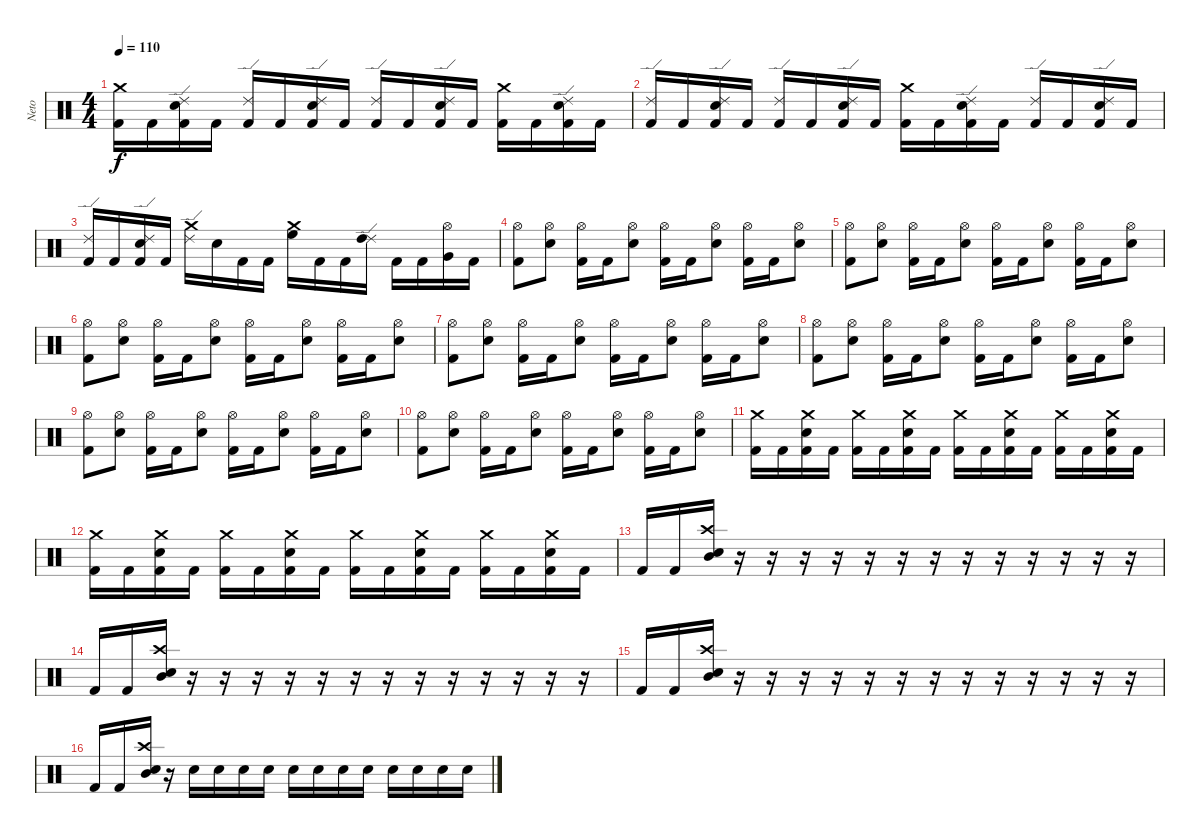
\track ("Neto" "Neto") {instrument percussion}
\staff {score}
\articulation defaults
\ts (4 4)
\tempo 110
\clef neutral
\ks c
("Crash medium (hit)" "Kick (hit) 2").16{dy f} "Kick (hit) 2".16 ("Ride (edge) 2" "Electric Snare (hit)" "Kick (hit) 2").16 "Kick (hit) 2".16 ("Ride (edge) 2" "Kick (hit) 2").16 "Kick (hit) 2".16 ("Ride (edge) 2" "Electric Snare (hit)" "Kick (hit) 2").16 "Kick (hit) 2".16 ("Ride (edge) 2" "Kick (hit) 2").16 "Kick (hit) 2".16 ("Ride (edge) 2" "Electric Snare (hit)" "Kick (hit) 2").16 "Kick (hit) 2".16 ("Crash medium (hit)" "Kick (hit) 2").16 "Kick (hit) 2".16 ("Ride (edge) 2" "Electric Snare (hit)" "Kick (hit) 2").16 "Kick (hit) 2".16 |
("Ride (edge) 2" "Kick (hit) 2").16 "Kick (hit) 2".16 ("Ride (edge) 2" "Electric Snare (hit)" "Kick (hit) 2").16 "Kick (hit) 2".16 ("Ride (edge) 2" "Kick (hit) 2").16 "Kick (hit) 2".16 ("Ride (edge) 2" "Electric Snare (hit)" "Kick (hit) 2").16 "Kick (hit) 2".16 ("Crash medium (hit)" "Kick (hit) 2").16 "Kick (hit) 2".16 ("Ride (edge) 2" "Electric Snare (hit)" "Kick (hit) 2").16 "Kick (hit) 2".16 ("Ride (edge) 2" "Kick (hit) 2").16 "Kick (hit) 2".16 ("Ride (edge) 2" "Electric Snare (hit)" "Kick (hit) 2").16 "Kick (hit) 2".16 |
("Ride (edge) 2" "Kick (hit) 2").16 "Kick (hit) 2".16 ("Ride (edge) 2" "Electric Snare (hit)" "Kick (hit) 2").16 "Kick (hit) 2".16 ("Crash medium (hit)" "Ride (edge) 2").16 "Electric Snare (hit)".16 "Kick (hit) 2".16 "Kick (hit) 2".16 ("Crash medium (hit)" "High Floor Tom (hit)").16 "Kick (hit) 2".16 "Kick (hit) 2".16 ("Ride (edge) 2" "High Tom (hit)").16 "Kick (hit) 2".16 "Kick (hit) 2".16 ("Hi-Hat (open)" "Very Low Tom (hit)").16 "Kick (hit) 2".16 |
("Hi-Hat (open)" "Kick (hit) 2").8 ("Hi-Hat (open)" "Electric Snare (hit)").8 ("Hi-Hat (open)" "Kick (hit) 2").16 "Kick (hit) 2".16 ("Hi-Hat (open)" "Electric Snare (hit)").8 ("Hi-Hat (open)" "Kick (hit) 2").16 "Kick (hit) 2".16 ("Hi-Hat (open)" "Electric Snare (hit)").8 ("Hi-Hat (open)" "Kick (hit) 2").16 "Kick (hit) 2".16 ("Hi-Hat (open)" "Electric Snare (hit)").8 |
("Hi-Hat (open)" "Kick (hit) 2").8 ("Hi-Hat (open)" "Electric Snare (hit)").8 ("Hi-Hat (open)" "Kick (hit) 2").16 "Kick (hit) 2".16 ("Hi-Hat (open)" "Electric Snare (hit)").8 ("Hi-Hat (open)" "Kick (hit) 2").16 "Kick (hit) 2".16 ("Hi-Hat (open)" "Electric Snare (hit)").8 ("Hi-Hat (open)" "Kick (hit) 2").16 "Kick (hit) 2".16 ("Hi-Hat (open)" "Electric Snare (hit)").8 |
("Hi-Hat (open)" "Kick (hit) 2").8 ("Hi-Hat (open)" "Electric Snare (hit)").8 ("Hi-Hat (open)" "Kick (hit) 2").16 "Kick (hit) 2".16 ("Hi-Hat (open)" "Electric Snare (hit)").8 ("Hi-Hat (open)" "Kick (hit) 2").16 "Kick (hit) 2".16 ("Hi-Hat (open)" "Electric Snare (hit)").8 ("Hi-Hat (open)" "Kick (hit) 2").16 "Kick (hit) 2".16 ("Hi-Hat (open)" "Electric Snare (hit)").8 |
("Hi-Hat (open)" "Kick (hit) 2").8 ("Hi-Hat (open)" "Electric Snare (hit)").8 ("Hi-Hat (open)" "Kick (hit) 2").16 "Kick (hit) 2".16 ("Hi-Hat (open)" "Electric Snare (hit)").8 ("Hi-Hat (open)" "Kick (hit) 2").16 "Kick (hit) 2".16 ("Hi-Hat (open)" "Electric Snare (hit)").8 ("Hi-Hat (open)" "Kick (hit) 2").16 "Kick (hit) 2".16 ("Hi-Hat (open)" "Electric Snare (hit)").8 |
("Hi-Hat (open)" "Kick (hit) 2").8 ("Hi-Hat (open)" "Electric Snare (hit)").8 ("Hi-Hat (open)" "Kick (hit) 2").16 "Kick (hit) 2".16 ("Hi-Hat (open)" "Electric Snare (hit)").8 ("Hi-Hat (open)" "Kick (hit) 2").16 "Kick (hit) 2".16 ("Hi-Hat (open)" "Electric Snare (hit)").8 ("Hi-Hat (open)" "Kick (hit) 2").16 "Kick (hit) 2".16 ("Hi-Hat (open)" "Electric Snare (hit)").8 |
("Hi-Hat (open)" "Kick (hit) 2").8 ("Hi-Hat (open)" "Electric Snare (hit)").8 ("Hi-Hat (open)" "Kick (hit) 2").16 "Kick (hit) 2".16 ("Hi-Hat (open)" "Electric Snare (hit)").8 ("Hi-Hat (open)" "Kick (hit) 2").16 "Kick (hit) 2".16 ("Hi-Hat (open)" "Electric Snare (hit)").8 ("Hi-Hat (open)" "Kick (hit) 2").16 "Kick (hit) 2".16 ("Hi-Hat (open)" "Electric Snare (hit)").8 |
("Hi-Hat (open)" "Kick (hit) 2").8 ("Hi-Hat (open)" "Electric Snare (hit)").8 ("Hi-Hat (open)" "Kick (hit) 2").16 "Kick (hit) 2".16 ("Hi-Hat (open)" "Electric Snare (hit)").8 ("Hi-Hat (open)" "Kick (hit) 2").16 "Kick (hit) 2".16 ("Hi-Hat (open)" "Electric Snare (hit)").8 ("Hi-Hat (open)" "Kick (hit) 2").16 "Kick (hit) 2".16 ("Hi-Hat (open)" "Electric Snare (hit)").8 |
("Crash medium (hit)" "Kick (hit) 2").16 "Kick (hit) 2".16 ("Crash medium (hit)" "Electric Snare (hit)" "Kick (hit) 2").16 "Kick (hit) 2".16 ("Crash medium (hit)" "Kick (hit) 2").16 "Kick (hit) 2".16 ("Crash medium (hit)" "Electric Snare (hit)" "Kick (hit) 2").16 "Kick (hit) 2".16 ("Crash medium (hit)" "Kick (hit) 2").16 "Kick (hit) 2".16 ("Crash medium (hit)" "Electric Snare (hit)" "Kick (hit) 2").16 "Kick (hit) 2".16 ("Crash medium (hit)" "Kick (hit) 2").16 "Kick (hit) 2".16 ("Crash medium (hit)" "Electric Snare (hit)" "Kick (hit) 2").16 "Kick (hit) 2".16 |
("Crash medium (hit)" "Kick (hit) 2").16 "Kick (hit) 2".16 ("Crash medium (hit)" "Electric Snare (hit)" "Kick (hit) 2").16 "Kick (hit) 2".16 ("Crash medium (hit)" "Kick (hit) 2").16 "Kick (hit) 2".16 ("Crash medium (hit)" "Electric Snare (hit)" "Kick (hit) 2").16 "Kick (hit) 2".16 ("Crash medium (hit)" "Kick (hit) 2").16 "Kick (hit) 2".16 ("Crash medium (hit)" "Electric Snare (hit)" "Kick (hit) 2").16 "Kick (hit) 2".16 ("Crash medium (hit)" "Kick (hit) 2").16 "Kick (hit) 2".16 ("Crash medium (hit)" "Electric Snare (hit)" "Kick (hit) 2").16 "Kick (hit) 2".16 |
"Kick (hit) 2".16 "Kick (hit) 2".16 ("Crash high (hit)" "Mid Tom (hit)" "Electric Snare (hit)").16 r.16 r.16 r.16 r.16 r.16 r.16 r.16 r.16 r.16 r.16 r.16 r.16 r.16 |
"Kick (hit) 2".16 "Kick (hit) 2".16 ("Crash high (hit)" "Mid Tom (hit)" "Electric Snare (hit)").16 r.16 r.16 r.16 r.16 r.16 r.16 r.16 r.16 r.16 r.16 r.16 r.16 r.16 |
"Kick (hit) 2".16 "Kick (hit) 2".16 ("Crash high (hit)" "Mid Tom (hit)" "Electric Snare (hit)").16 r.16 r.16 r.16 r.16 r.16 r.16 r.16 r.16 r.16 r.16 r.16 r.16 r.16 |
"Kick (hit) 2".16 "Kick (hit) 2".16 ("Crash high (hit)" "Mid Tom (hit)" "Electric Snare (hit)").16 r.16 "Electric Snare (hit)".16 "Electric Snare (hit)".16 "Electric Snare (hit)".16 "Electric Snare (hit)".16 "Electric Snare (hit)".16 "Electric Snare (hit)".16 "Electric Snare (hit)".16 "Electric Snare (hit)".16 "Electric Snare (hit)".16 "Electric Snare (hit)".16 "Electric Snare (hit)".16 "Electric Snare (hit)".16
